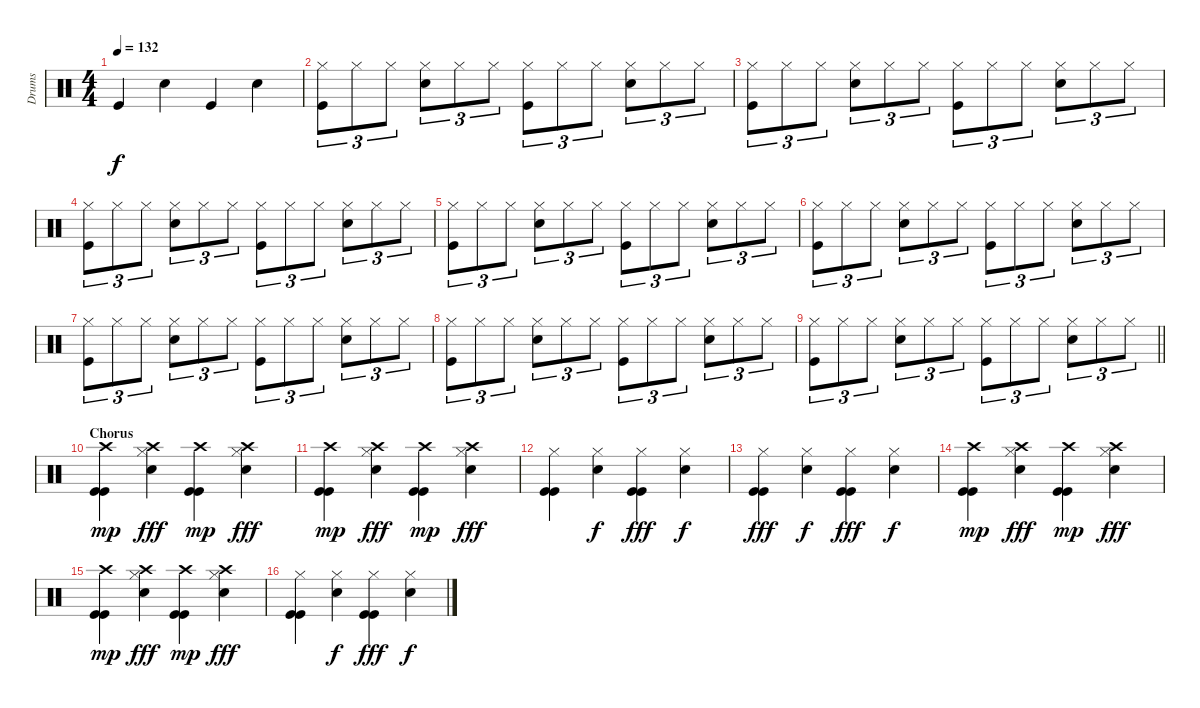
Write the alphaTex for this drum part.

\track ("Drums" "Drums") {instrument percussion}
\staff {score}
\articulation defaults
\ts (4 4)
\tempo 132
\clef neutral
\ks c "Kick (hit)".4{dy f} "Snare (hit) 2".4 "Kick (hit)".4 "Snare (hit) 2".4
|
("Hi-Hat (closed)" "Kick (hit)").8{tu (3 2)} "Hi-Hat (closed)".8{tu (3 2)} "Hi-Hat (closed)".8{tu (3 2)} ("Hi-Hat (closed)" "Snare (hit) 2").8{tu (3 2)} "Hi-Hat (closed)".8{tu (3 2)} "Hi-Hat (closed)".8{tu (3 2)} ("Hi-Hat (closed)" "Kick (hit)").8{tu (3 2)} "Hi-Hat (closed)".8{tu (3 2)} "Hi-Hat (closed)".8{tu (3 2)} ("Hi-Hat (closed)" "Snare (hit) 2").8{tu (3 2)} "Hi-Hat (closed)".8{tu (3 2)} "Hi-Hat (closed)".8{tu (3 2)} |
("Hi-Hat (closed)" "Kick (hit)").8{tu (3 2)} "Hi-Hat (closed)".8{tu (3 2)} "Hi-Hat (closed)".8{tu (3 2)} ("Hi-Hat (closed)" "Snare (hit) 2").8{tu (3 2)} "Hi-Hat (closed)".8{tu (3 2)} "Hi-Hat (closed)".8{tu (3 2)} ("Hi-Hat (closed)" "Kick (hit)").8{tu (3 2)} "Hi-Hat (closed)".8{tu (3 2)} "Hi-Hat (closed)".8{tu (3 2)} ("Hi-Hat (closed)" "Snare (hit) 2").8{tu (3 2)} "Hi-Hat (closed)".8{tu (3 2)} "Hi-Hat (closed)".8{tu (3 2)} |
("Hi-Hat (closed)" "Kick (hit)").8{tu (3 2)} "Hi-Hat (closed)".8{tu (3 2)} "Hi-Hat (closed)".8{tu (3 2)} ("Hi-Hat (closed)" "Snare (hit) 2").8{tu (3 2)} "Hi-Hat (closed)".8{tu (3 2)} "Hi-Hat (closed)".8{tu (3 2)} ("Hi-Hat (closed)" "Kick (hit)").8{tu (3 2)} "Hi-Hat (closed)".8{tu (3 2)} "Hi-Hat (closed)".8{tu (3 2)} ("Hi-Hat (closed)" "Snare (hit) 2").8{tu (3 2)} "Hi-Hat (closed)".8{tu (3 2)} "Hi-Hat (closed)".8{tu (3 2)} |
("Hi-Hat (closed)" "Kick (hit)").8{tu (3 2)} "Hi-Hat (closed)".8{tu (3 2)} "Hi-Hat (closed)".8{tu (3 2)} ("Hi-Hat (closed)" "Snare (hit) 2").8{tu (3 2)} "Hi-Hat (closed)".8{tu (3 2)} "Hi-Hat (closed)".8{tu (3 2)} ("Hi-Hat (closed)" "Kick (hit)").8{tu (3 2)} "Hi-Hat (closed)".8{tu (3 2)} "Hi-Hat (closed)".8{tu (3 2)} ("Hi-Hat (closed)" "Snare (hit) 2").8{tu (3 2)} "Hi-Hat (closed)".8{tu (3 2)} "Hi-Hat (closed)".8{tu (3 2)} |
("Hi-Hat (closed)" "Kick (hit)").8{tu (3 2)} "Hi-Hat (closed)".8{tu (3 2)} "Hi-Hat (closed)".8{tu (3 2)} ("Hi-Hat (closed)" "Snare (hit) 2").8{tu (3 2)} "Hi-Hat (closed)".8{tu (3 2)} "Hi-Hat (closed)".8{tu (3 2)} ("Hi-Hat (closed)" "Kick (hit)").8{tu (3 2)} "Hi-Hat (closed)".8{tu (3 2)} "Hi-Hat (closed)".8{tu (3 2)} ("Hi-Hat (closed)" "Snare (hit) 2").8{tu (3 2)} "Hi-Hat (closed)".8{tu (3 2)} "Hi-Hat (closed)".8{tu (3 2)} |
("Hi-Hat (closed)" "Kick (hit)").8{tu (3 2)} "Hi-Hat (closed)".8{tu (3 2)} "Hi-Hat (closed)".8{tu (3 2)} ("Hi-Hat (closed)" "Snare (hit) 2").8{tu (3 2)} "Hi-Hat (closed)".8{tu (3 2)} "Hi-Hat (closed)".8{tu (3 2)} ("Hi-Hat (closed)" "Kick (hit)").8{tu (3 2)} "Hi-Hat (closed)".8{tu (3 2)} "Hi-Hat (closed)".8{tu (3 2)} ("Hi-Hat (closed)" "Snare (hit) 2").8{tu (3 2)} "Hi-Hat (closed)".8{tu (3 2)} "Hi-Hat (closed)".8{tu (3 2)} |
("Hi-Hat (closed)" "Kick (hit)").8{tu (3 2)} "Hi-Hat (closed)".8{tu (3 2)} "Hi-Hat (closed)".8{tu (3 2)} ("Hi-Hat (closed)" "Snare (hit) 2").8{tu (3 2)} "Hi-Hat (closed)".8{tu (3 2)} "Hi-Hat (closed)".8{tu (3 2)} ("Hi-Hat (closed)" "Kick (hit)").8{tu (3 2)} "Hi-Hat (closed)".8{tu (3 2)} "Hi-Hat (closed)".8{tu (3 2)} ("Hi-Hat (closed)" "Snare (hit) 2").8{tu (3 2)} "Hi-Hat (closed)".8{tu (3 2)} "Hi-Hat (closed)".8{tu (3 2)} |
\barLineRight lightlight
("Hi-Hat (closed)" "Kick (hit)").8{tu (3 2)} "Hi-Hat (closed)".8{tu (3 2)} "Hi-Hat (closed)".8{tu (3 2)} ("Hi-Hat (closed)" "Snare (hit) 2").8{tu (3 2)} "Hi-Hat (closed)".8{tu (3 2)} "Hi-Hat (closed)".8{tu (3 2)} ("Hi-Hat (closed)" "Kick (hit)").8{tu (3 2)} "Hi-Hat (closed)".8{tu (3 2)} "Hi-Hat (closed)".8{tu (3 2)} ("Hi-Hat (closed)" "Snare (hit) 2").8{tu (3 2)} "Hi-Hat (closed)".8{tu (3 2)} "Hi-Hat (closed)".8{tu (3 2)} |
\section ("" "Chorus")
("Kick (hit)" "Kick (hit)" "Crash high (hit)").4{dy mp} ("Hi-Hat (closed)" "Crash high (hit)" "Snare (hit) 2").4{dy fff} ("Kick (hit)" "Kick (hit)" "Crash high (hit)").4{dy mp} ("Hi-Hat (closed)" "Crash high (hit)" "Snare (hit) 2").4{dy fff} |
("Kick (hit)" "Kick (hit)" "Crash high (hit)").4{dy mp} ("Hi-Hat (closed)" "Crash high (hit)" "Snare (hit) 2").4{dy fff} ("Kick (hit)" "Kick (hit)" "Crash high (hit)").4{dy mp} ("Hi-Hat (closed)" "Crash high (hit)" "Snare (hit) 2").4{dy fff} |
("Hi-Hat (closed)" "Kick (hit)" "Kick (hit)").4 ("Hi-Hat (closed)" "Snare (hit) 2").4{dy f} ("Hi-Hat (closed)" "Kick (hit)" "Kick (hit)").4{dy fff} ("Hi-Hat (closed)" "Snare (hit) 2").4{dy f} |
("Hi-Hat (closed)" "Kick (hit)" "Kick (hit)").4{dy fff} ("Hi-Hat (closed)" "Snare (hit) 2").4{dy f} ("Hi-Hat (closed)" "Kick (hit)" "Kick (hit)").4{dy fff} ("Hi-Hat (closed)" "Snare (hit) 2").4{dy f} |
("Kick (hit)" "Kick (hit)" "Crash high (hit)").4{dy mp} ("Hi-Hat (closed)" "Crash high (hit)" "Snare (hit) 2").4{dy fff} ("Kick (hit)" "Kick (hit)" "Crash high (hit)").4{dy mp} ("Hi-Hat (closed)" "Crash high (hit)" "Snare (hit) 2").4{dy fff} |
("Kick (hit)" "Kick (hit)" "Crash high (hit)").4{dy mp} ("Hi-Hat (closed)" "Crash high (hit)" "Snare (hit) 2").4{dy fff} ("Kick (hit)" "Kick (hit)" "Crash high (hit)").4{dy mp} ("Hi-Hat (closed)" "Crash high (hit)" "Snare (hit) 2").4{dy fff} |
("Hi-Hat (closed)" "Kick (hit)" "Kick (hit)").4 ("Hi-Hat (closed)" "Snare (hit) 2").4{dy f} ("Hi-Hat (closed)" "Kick (hit)" "Kick (hit)").4{dy fff} ("Hi-Hat (closed)" "Snare (hit) 2").4{dy f}
